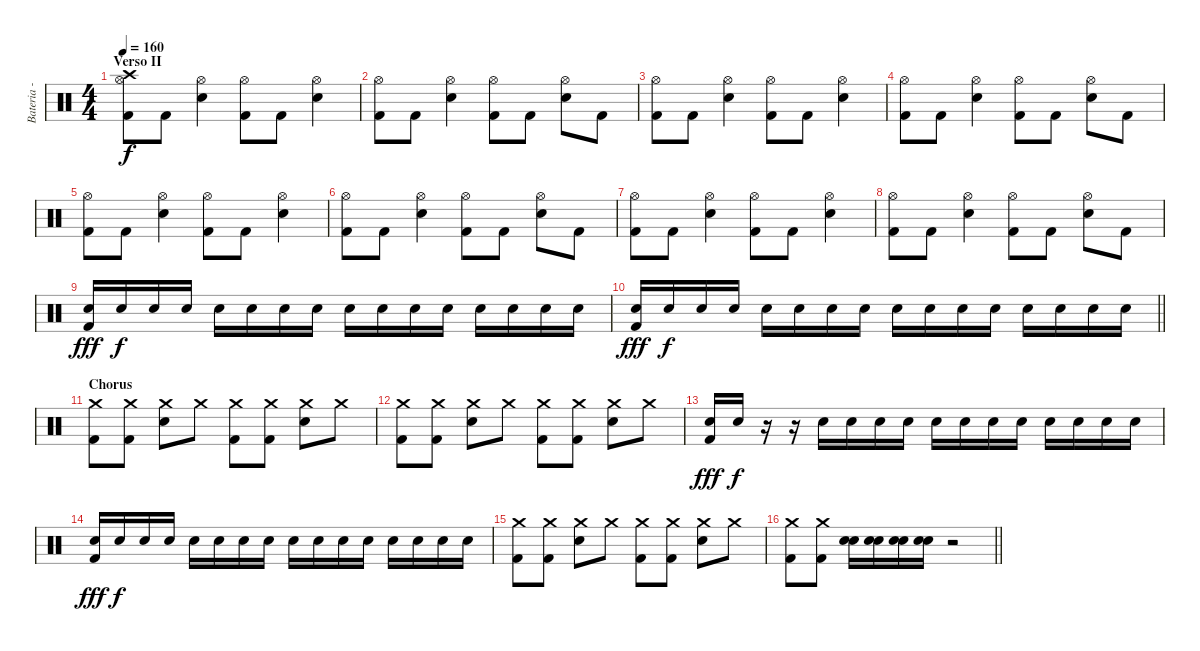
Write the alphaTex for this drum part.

\track ("Bateria - Larzon" "Bateria - ") {instrument percussion}
\staff {score}
\articulation defaults
\ts (4 4)
\section ("" "Verso II")
\tempo 160
\clef neutral
\ks c
("Kick (hit) 2" "Hi-Hat (open)" "Crash high (hit)").8{dy f} "Kick (hit) 2".8 ("Snare (hit) 2" "Hi-Hat (open)").4 ("Kick (hit) 2" "Hi-Hat (open)").8 "Kick (hit) 2".8 ("Snare (hit) 2" "Hi-Hat (open)").4 |
("Kick (hit) 2" "Hi-Hat (open)").8 "Kick (hit) 2".8 ("Snare (hit) 2" "Hi-Hat (open)").4 ("Kick (hit) 2" "Hi-Hat (open)").8 "Kick (hit) 2".8 ("Snare (hit) 2" "Hi-Hat (open)").8 "Kick (hit) 2".8 |
("Kick (hit) 2" "Hi-Hat (open)").8 "Kick (hit) 2".8 ("Snare (hit) 2" "Hi-Hat (open)").4 ("Kick (hit) 2" "Hi-Hat (open)").8 "Kick (hit) 2".8 ("Snare (hit) 2" "Hi-Hat (open)").4 |
("Kick (hit) 2" "Hi-Hat (open)").8 "Kick (hit) 2".8 ("Snare (hit) 2" "Hi-Hat (open)").4 ("Kick (hit) 2" "Hi-Hat (open)").8 "Kick (hit) 2".8 ("Snare (hit) 2" "Hi-Hat (open)").8 "Kick (hit) 2".8 |
("Kick (hit) 2" "Hi-Hat (open)").8 "Kick (hit) 2".8 ("Snare (hit) 2" "Hi-Hat (open)").4 ("Kick (hit) 2" "Hi-Hat (open)").8 "Kick (hit) 2".8 ("Snare (hit) 2" "Hi-Hat (open)").4 |
("Kick (hit) 2" "Hi-Hat (open)").8 "Kick (hit) 2".8 ("Snare (hit) 2" "Hi-Hat (open)").4 ("Kick (hit) 2" "Hi-Hat (open)").8 "Kick (hit) 2".8 ("Snare (hit) 2" "Hi-Hat (open)").8 "Kick (hit) 2".8 |
("Kick (hit) 2" "Hi-Hat (open)").8 "Kick (hit) 2".8 ("Snare (hit) 2" "Hi-Hat (open)").4 ("Kick (hit) 2" "Hi-Hat (open)").8 "Kick (hit) 2".8 ("Snare (hit) 2" "Hi-Hat (open)").4 |
("Kick (hit) 2" "Hi-Hat (open)").8 "Kick (hit) 2".8 ("Snare (hit) 2" "Hi-Hat (open)").4 ("Kick (hit) 2" "Hi-Hat (open)").8 "Kick (hit) 2".8 ("Snare (hit) 2" "Hi-Hat (open)").8 "Kick (hit) 2".8 |
("Snare (hit) 2" "Kick (hit) 2").16{dy fff} "Snare (hit) 2".16{dy f} "Snare (hit) 2".16 "Snare (hit) 2".16 "Snare (hit) 2".16 "Snare (hit) 2".16 "Snare (hit) 2".16 "Snare (hit) 2".16 "Snare (hit) 2".16 "Snare (hit) 2".16 "Snare (hit) 2".16 "Snare (hit) 2".16 "Snare (hit) 2".16 "Snare (hit) 2".16 "Snare (hit) 2".16 "Snare (hit) 2".16 |
\barLineRight lightlight
("Snare (hit) 2" "Kick (hit) 2").16{dy fff} "Snare (hit) 2".16{dy f} "Snare (hit) 2".16 "Snare (hit) 2".16 "Snare (hit) 2".16 "Snare (hit) 2".16 "Snare (hit) 2".16 "Snare (hit) 2".16 "Snare (hit) 2".16 "Snare (hit) 2".16 "Snare (hit) 2".16 "Snare (hit) 2".16 "Snare (hit) 2".16 "Snare (hit) 2".16 "Snare (hit) 2".16 "Snare (hit) 2".16 |
\section ("" "Chorus")
("Kick (hit) 2" "Crash medium (hit)").8 ("Kick (hit) 2" "Crash medium (hit)").8 ("Snare (hit) 2" "Crash medium (hit)").8 "Crash medium (hit)".8 ("Kick (hit) 2" "Crash medium (hit)").8 ("Kick (hit) 2" "Crash medium (hit)").8 ("Snare (hit) 2" "Crash medium (hit)").8 "Crash medium (hit)".8 |
("Kick (hit) 2" "Crash medium (hit)").8 ("Kick (hit) 2" "Crash medium (hit)").8 ("Snare (hit) 2" "Crash medium (hit)").8 "Crash medium (hit)".8 ("Kick (hit) 2" "Crash medium (hit)").8 ("Kick (hit) 2" "Crash medium (hit)").8 ("Snare (hit) 2" "Crash medium (hit)").8 "Crash medium (hit)".8 |
("Snare (hit) 2" "Kick (hit) 2").16{dy fff} "Snare (hit) 2".16{dy f} r.16 r.16 "Snare (hit) 2".16 "Snare (hit) 2".16 "Snare (hit) 2".16 "Snare (hit) 2".16 "Snare (hit) 2".16 "Snare (hit) 2".16 "Snare (hit) 2".16 "Snare (hit) 2".16 "Snare (hit) 2".16 "Snare (hit) 2".16 "Snare (hit) 2".16 "Snare (hit) 2".16 |
("Snare (hit) 2" "Kick (hit) 2").16{dy fff} "Snare (hit) 2".16{dy f} "Snare (hit) 2".16 "Snare (hit) 2".16 "Snare (hit) 2".16 "Snare (hit) 2".16 "Snare (hit) 2".16 "Snare (hit) 2".16 "Snare (hit) 2".16 "Snare (hit) 2".16 "Snare (hit) 2".16 "Snare (hit) 2".16 "Snare (hit) 2".16 "Snare (hit) 2".16 "Snare (hit) 2".16 "Snare (hit) 2".16 |
("Kick (hit) 2" "Crash medium (hit)").8 ("Kick (hit) 2" "Crash medium (hit)").8 ("Snare (hit) 2" "Crash medium (hit)").8 "Crash medium (hit)".8 ("Kick (hit) 2" "Crash medium (hit)").8 ("Kick (hit) 2" "Crash medium (hit)").8 ("Snare (hit) 2" "Crash medium (hit)").8 "Crash medium (hit)".8 |
\barLineRight lightlight
("Kick (hit) 2" "Crash medium (hit)").8 ("Kick (hit) 2" "Crash medium (hit)").8 ("Snare (hit) 2" "Snare (hit) 2").16 ("Snare (hit) 2" "Snare (hit) 2").16 ("Snare (hit) 2" "Snare (hit) 2").16 ("Snare (hit) 2" "Snare (hit) 2").16 r.2
